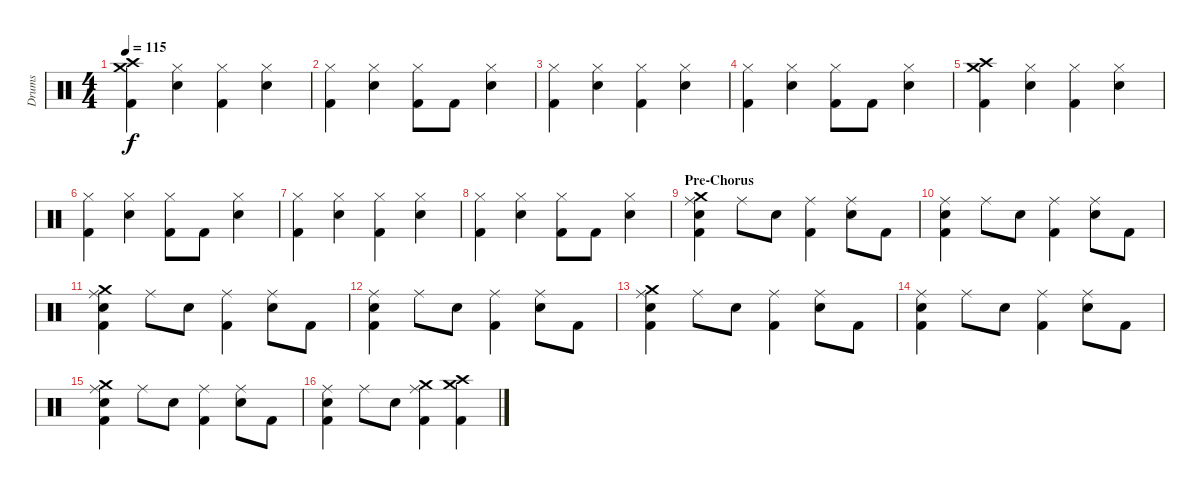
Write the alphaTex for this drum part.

\track ("Drums" "Drums") {instrument percussion}
\staff {score}
\articulation defaults
\ts (4 4)
\tempo 115
\clef neutral
\ks c
("Crash medium (hit)" "Crash high (hit)" "Kick (hit) 2").4{dy f} ("Hi-Hat (closed)" "Snare (hit) 2").4 ("Hi-Hat (closed)" "Kick (hit) 2").4 ("Hi-Hat (closed)" "Snare (hit) 2").4 |
("Hi-Hat (closed)" "Kick (hit) 2").4 ("Hi-Hat (closed)" "Snare (hit) 2").4 ("Hi-Hat (closed)" "Kick (hit) 2").8 "Kick (hit) 2".8 ("Hi-Hat (closed)" "Snare (hit) 2").4 |
("Hi-Hat (closed)" "Kick (hit) 2").4 ("Hi-Hat (closed)" "Snare (hit) 2").4 ("Hi-Hat (closed)" "Kick (hit) 2").4 ("Hi-Hat (closed)" "Snare (hit) 2").4 |
("Hi-Hat (closed)" "Kick (hit) 2").4 ("Hi-Hat (closed)" "Snare (hit) 2").4 ("Hi-Hat (closed)" "Kick (hit) 2").8 "Kick (hit) 2".8 ("Hi-Hat (closed)" "Snare (hit) 2").4 |
("Crash medium (hit)" "Crash high (hit)" "Kick (hit) 2").4 ("Hi-Hat (closed)" "Snare (hit) 2").4 ("Hi-Hat (closed)" "Kick (hit) 2").4 ("Hi-Hat (closed)" "Snare (hit) 2").4 |
("Hi-Hat (closed)" "Kick (hit) 2").4 ("Hi-Hat (closed)" "Snare (hit) 2").4 ("Hi-Hat (closed)" "Kick (hit) 2").8 "Kick (hit) 2".8 ("Hi-Hat (closed)" "Snare (hit) 2").4 |
("Hi-Hat (closed)" "Kick (hit) 2").4 ("Hi-Hat (closed)" "Snare (hit) 2").4 ("Hi-Hat (closed)" "Kick (hit) 2").4 ("Hi-Hat (closed)" "Snare (hit) 2").4 |
("Hi-Hat (closed)" "Kick (hit) 2").4 ("Hi-Hat (closed)" "Snare (hit) 2").4 ("Hi-Hat (closed)" "Kick (hit) 2").8 "Kick (hit) 2".8 ("Hi-Hat (closed)" "Snare (hit) 2").4 |
\section ("" "Pre-Chorus")
("Ride (middle)" "Crash medium (hit)" "Snare (hit) 2" "Kick (hit) 2").4 "Ride (middle)".8 "Snare (hit) 2".8 ("Ride (middle)" "Kick (hit) 2").4 ("Ride (middle)" "Snare (hit) 2").8 "Kick (hit) 2".8 |
("Ride (middle)" "Snare (hit) 2" "Kick (hit) 2").4 "Ride (middle)".8 "Snare (hit) 2".8 ("Ride (middle)" "Kick (hit) 2").4 ("Ride (middle)" "Snare (hit) 2").8 "Kick (hit) 2".8 |
("Ride (middle)" "Crash medium (hit)" "Snare (hit) 2" "Kick (hit) 2").4 "Ride (middle)".8 "Snare (hit) 2".8 ("Ride (middle)" "Kick (hit) 2").4 ("Ride (middle)" "Snare (hit) 2").8 "Kick (hit) 2".8 |
("Ride (middle)" "Snare (hit) 2" "Kick (hit) 2").4 "Ride (middle)".8 "Snare (hit) 2".8 ("Ride (middle)" "Kick (hit) 2").4 ("Ride (middle)" "Snare (hit) 2").8 "Kick (hit) 2".8 |
("Ride (middle)" "Crash medium (hit)" "Snare (hit) 2" "Kick (hit) 2").4 "Ride (middle)".8 "Snare (hit) 2".8 ("Ride (middle)" "Kick (hit) 2").4 ("Ride (middle)" "Snare (hit) 2").8 "Kick (hit) 2".8 |
("Ride (middle)" "Snare (hit) 2" "Kick (hit) 2").4 "Ride (middle)".8 "Snare (hit) 2".8 ("Ride (middle)" "Kick (hit) 2").4 ("Ride (middle)" "Snare (hit) 2").8 "Kick (hit) 2".8 |
("Ride (middle)" "Crash medium (hit)" "Snare (hit) 2" "Kick (hit) 2").4 "Ride (middle)".8 "Snare (hit) 2".8 ("Ride (middle)" "Kick (hit) 2").4 ("Ride (middle)" "Snare (hit) 2").8 "Kick (hit) 2".8 |
("Ride (middle)" "Snare (hit) 2" "Kick (hit) 2").4 "Ride (middle)".8 "Snare (hit) 2".8 ("Ride (middle)" "Crash medium (hit)" "Kick (hit) 2").4 ("Crash medium (hit)" "Crash high (hit)" "Kick (hit) 2").4
